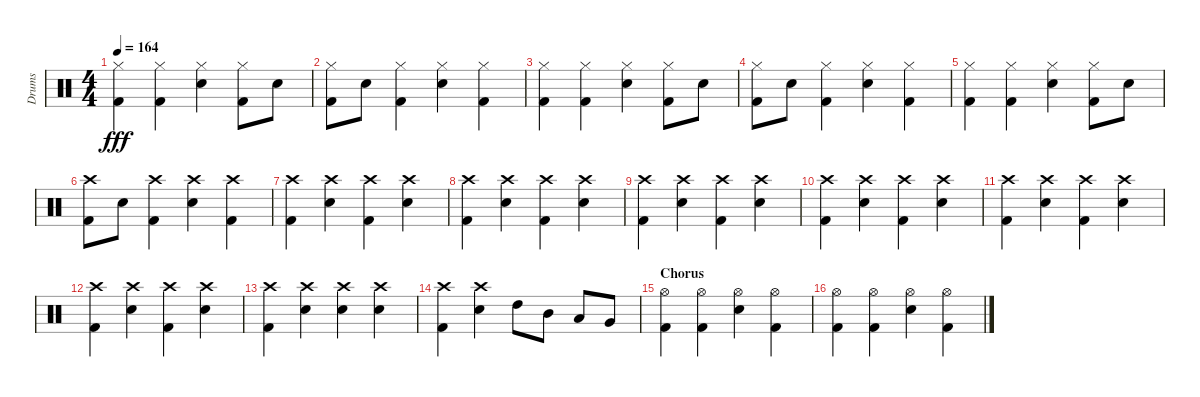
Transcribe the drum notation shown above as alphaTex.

\track ("Drums" "Drums") {instrument percussion}
\staff {score}
\articulation defaults
\ts (4 4)
\tempo 164
\clef neutral
\ks c
("Hi-Hat (closed)" "Kick (hit) 2").4{dy fff} ("Hi-Hat (closed)" "Kick (hit) 2").4 ("Hi-Hat (closed)" "Electric Snare (hit)").4 ("Hi-Hat (closed)" "Kick (hit) 2").8 "Electric Snare (hit)".8 |
("Hi-Hat (closed)" "Kick (hit) 2").8 "Electric Snare (hit)".8 ("Hi-Hat (closed)" "Kick (hit) 2").4 ("Hi-Hat (closed)" "Electric Snare (hit)").4 ("Hi-Hat (closed)" "Kick (hit) 2").4 |
("Hi-Hat (closed)" "Kick (hit) 2").4 ("Hi-Hat (closed)" "Kick (hit) 2").4 ("Hi-Hat (closed)" "Electric Snare (hit)").4 ("Hi-Hat (closed)" "Kick (hit) 2").8 "Electric Snare (hit)".8 |
("Hi-Hat (closed)" "Kick (hit) 2").8 "Electric Snare (hit)".8 ("Hi-Hat (closed)" "Kick (hit) 2").4 ("Hi-Hat (closed)" "Electric Snare (hit)").4 ("Hi-Hat (closed)" "Kick (hit) 2").4 |
("Hi-Hat (closed)" "Kick (hit) 2").4 ("Hi-Hat (closed)" "Kick (hit) 2").4 ("Hi-Hat (closed)" "Electric Snare (hit)").4 ("Hi-Hat (closed)" "Kick (hit) 2").8 "Electric Snare (hit)".8 |
("Crash high (hit)" "Kick (hit) 2").8 "Electric Snare (hit)".8 ("Crash high (hit)" "Kick (hit) 2").4 ("Crash high (hit)" "Electric Snare (hit)").4 ("Crash high (hit)" "Kick (hit) 2").4 |
("Crash high (hit)" "Kick (hit) 2").4 ("Crash high (hit)" "Electric Snare (hit)").4 ("Crash high (hit)" "Kick (hit) 2").4 ("Crash high (hit)" "Electric Snare (hit)").4 |
("Crash high (hit)" "Kick (hit) 2").4 ("Crash high (hit)" "Electric Snare (hit)").4 ("Crash high (hit)" "Kick (hit) 2").4 ("Crash high (hit)" "Electric Snare (hit)").4 |
("Crash high (hit)" "Kick (hit) 2").4 ("Crash high (hit)" "Electric Snare (hit)").4 ("Crash high (hit)" "Kick (hit) 2").4 ("Crash high (hit)" "Electric Snare (hit)").4 |
("Crash high (hit)" "Kick (hit) 2").4 ("Crash high (hit)" "Electric Snare (hit)").4 ("Crash high (hit)" "Kick (hit) 2").4 ("Crash high (hit)" "Electric Snare (hit)").4 |
("Crash high (hit)" "Kick (hit) 2").4 ("Crash high (hit)" "Electric Snare (hit)").4 ("Crash high (hit)" "Kick (hit) 2").4 ("Crash high (hit)" "Electric Snare (hit)").4 |
("Crash high (hit)" "Kick (hit) 2").4 ("Crash high (hit)" "Electric Snare (hit)").4 ("Crash high (hit)" "Kick (hit) 2").4 ("Crash high (hit)" "Electric Snare (hit)").4 |
("Crash high (hit)" "Kick (hit) 2").4 ("Crash high (hit)" "Electric Snare (hit)").4 ("Crash high (hit)" "Electric Snare (hit)").4 ("Crash high (hit)" "Electric Snare (hit)").4 |
("Crash high (hit)" "Kick (hit) 2").4 ("Crash high (hit)" "Electric Snare (hit)").4 "High Tom (hit)".8 "Mid Tom (hit)".8 "Low Tom (hit)".8 "Very Low Tom (hit)".8 |
\section ("" "Chorus")
("Hi-Hat (open)" "Kick (hit) 2").4 ("Hi-Hat (open)" "Kick (hit) 2").4 ("Hi-Hat (open)" "Electric Snare (hit)").4 ("Hi-Hat (open)" "Kick (hit) 2").4 |
("Hi-Hat (open)" "Kick (hit) 2").4 ("Hi-Hat (open)" "Kick (hit) 2").4 ("Hi-Hat (open)" "Electric Snare (hit)").4 ("Hi-Hat (open)" "Kick (hit) 2").4
